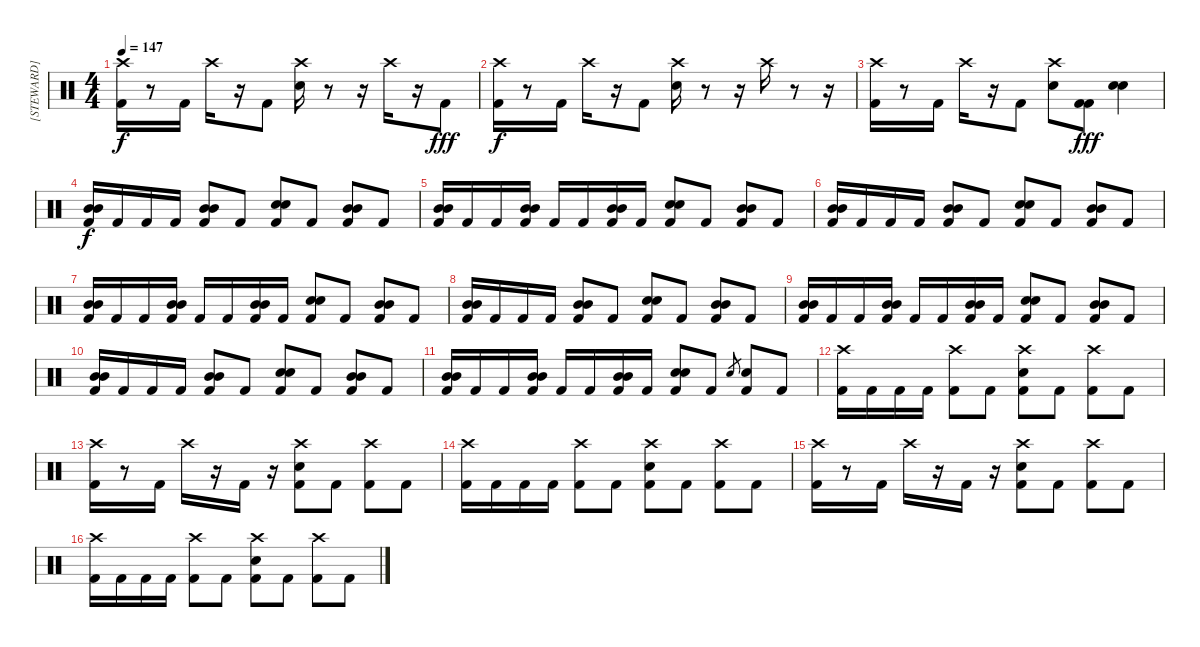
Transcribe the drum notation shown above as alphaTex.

\track ("[STEWARD]" "[STEWARD]") {instrument percussion}
\staff {score}
\articulation defaults
\ts (4 4)
\tempo 147
\clef neutral
\ks c
("Crash high (hit)" "Kick (hit) 2").16{dy f} r.8 "Kick (hit) 2".16 "Crash high (hit)".16 r.16 "Kick (hit) 2".8 ("Crash high (hit)" "Snare (hit) 2").16 r.8 r.16 "Crash high (hit)".16 r.16 "Kick (hit) 2".8{dy fff} |
("Crash high (hit)" "Kick (hit) 2").16{dy f} r.8 "Kick (hit) 2".16 "Crash high (hit)".16 r.16 "Kick (hit) 2".8 ("Crash high (hit)" "Snare (hit) 2").16 r.8 r.16 "Crash high (hit)".16 r.8 r.16 |
("Crash high (hit)" "Kick (hit) 2").16 r.8 "Kick (hit) 2".16 "Crash high (hit)".16 r.16 "Kick (hit) 2".8 ("Crash high (hit)" "Snare (hit) 2").8 ("Kick (hit) 2" "Kick (hit) 2").8{dy fff} ("Snare (hit) 2" "Snare (hit) 2").4 |
("Mid Tom (hit)" "Mid Tom (hit)" "Kick (hit) 2").16{dy f} "Kick (hit) 2".16 "Kick (hit) 2".16 "Kick (hit) 2".16 ("Mid Tom (hit)" "Mid Tom (hit)" "Kick (hit) 2").8 "Kick (hit) 2".8 ("Snare (hit) 2" "Snare (hit) 2" "Kick (hit) 2").8 "Kick (hit) 2".8 ("Mid Tom (hit)" "Mid Tom (hit)" "Kick (hit) 2").8 "Kick (hit) 2".8 |
("Mid Tom (hit)" "Mid Tom (hit)" "Kick (hit) 2").16 "Kick (hit) 2".16 "Kick (hit) 2".16 ("Mid Tom (hit)" "Mid Tom (hit)" "Kick (hit) 2").16 "Kick (hit) 2".16 "Kick (hit) 2".16 ("Mid Tom (hit)" "Mid Tom (hit)" "Kick (hit) 2").16 "Kick (hit) 2".16 ("Snare (hit) 2" "Snare (hit) 2" "Kick (hit) 2").8 "Kick (hit) 2".8 ("Mid Tom (hit)" "Mid Tom (hit)" "Kick (hit) 2").8 "Kick (hit) 2".8 |
("Mid Tom (hit)" "Mid Tom (hit)" "Kick (hit) 2").16 "Kick (hit) 2".16 "Kick (hit) 2".16 "Kick (hit) 2".16 ("Mid Tom (hit)" "Mid Tom (hit)" "Kick (hit) 2").8 "Kick (hit) 2".8 ("Snare (hit) 2" "Snare (hit) 2" "Kick (hit) 2").8 "Kick (hit) 2".8 ("Mid Tom (hit)" "Mid Tom (hit)" "Kick (hit) 2").8 "Kick (hit) 2".8 |
("Mid Tom (hit)" "Mid Tom (hit)" "Kick (hit) 2").16 "Kick (hit) 2".16 "Kick (hit) 2".16 ("Mid Tom (hit)" "Mid Tom (hit)" "Kick (hit) 2").16 "Kick (hit) 2".16 "Kick (hit) 2".16 ("Mid Tom (hit)" "Mid Tom (hit)" "Kick (hit) 2").16 "Kick (hit) 2".16 ("Snare (hit) 2" "Snare (hit) 2" "Kick (hit) 2").8 "Kick (hit) 2".8 ("Mid Tom (hit)" "Mid Tom (hit)" "Kick (hit) 2").8 "Kick (hit) 2".8 |
("Mid Tom (hit)" "Mid Tom (hit)" "Kick (hit) 2").16 "Kick (hit) 2".16 "Kick (hit) 2".16 "Kick (hit) 2".16 ("Mid Tom (hit)" "Mid Tom (hit)" "Kick (hit) 2").8 "Kick (hit) 2".8 ("Snare (hit) 2" "Snare (hit) 2" "Kick (hit) 2").8 "Kick (hit) 2".8 ("Mid Tom (hit)" "Mid Tom (hit)" "Kick (hit) 2").8 "Kick (hit) 2".8 |
("Mid Tom (hit)" "Mid Tom (hit)" "Kick (hit) 2").16 "Kick (hit) 2".16 "Kick (hit) 2".16 ("Mid Tom (hit)" "Mid Tom (hit)" "Kick (hit) 2").16 "Kick (hit) 2".16 "Kick (hit) 2".16 ("Mid Tom (hit)" "Mid Tom (hit)" "Kick (hit) 2").16 "Kick (hit) 2".16 ("Snare (hit) 2" "Snare (hit) 2" "Kick (hit) 2").8 "Kick (hit) 2".8 ("Mid Tom (hit)" "Mid Tom (hit)" "Kick (hit) 2").8 "Kick (hit) 2".8 |
("Mid Tom (hit)" "Mid Tom (hit)" "Kick (hit) 2").16 "Kick (hit) 2".16 "Kick (hit) 2".16 "Kick (hit) 2".16 ("Mid Tom (hit)" "Mid Tom (hit)" "Kick (hit) 2").8 "Kick (hit) 2".8 ("Snare (hit) 2" "Snare (hit) 2" "Kick (hit) 2").8 "Kick (hit) 2".8 ("Mid Tom (hit)" "Mid Tom (hit)" "Kick (hit) 2").8 "Kick (hit) 2".8 |
("Mid Tom (hit)" "Mid Tom (hit)" "Kick (hit) 2").16 "Kick (hit) 2".16 "Kick (hit) 2".16 ("Mid Tom (hit)" "Mid Tom (hit)" "Kick (hit) 2").16 "Kick (hit) 2".16 "Kick (hit) 2".16 ("Mid Tom (hit)" "Mid Tom (hit)" "Kick (hit) 2").16 "Kick (hit) 2".16 ("Snare (hit) 2" "Snare (hit) 2" "Kick (hit) 2").8 "Kick (hit) 2".8 "Snare (hit) 2".8{gr} ("Snare (hit) 2" "Kick (hit) 2").8 "Kick (hit) 2".8 |
("Crash high (hit)" "Kick (hit) 2").16 "Kick (hit) 2".16 "Kick (hit) 2".16 "Kick (hit) 2".16 ("Crash high (hit)" "Kick (hit) 2").8 "Kick (hit) 2".8 ("Crash high (hit)" "Snare (hit) 2" "Kick (hit) 2").8 "Kick (hit) 2".8 ("Crash high (hit)" "Kick (hit) 2").8 "Kick (hit) 2".8 |
("Crash high (hit)" "Kick (hit) 2").16 r.8 "Kick (hit) 2".16 "Crash high (hit)".16 r.16 "Kick (hit) 2".16 r.16 ("Crash high (hit)" "Snare (hit) 2" "Kick (hit) 2").8 "Kick (hit) 2".8 ("Crash high (hit)" "Kick (hit) 2").8 "Kick (hit) 2".8 |
("Crash high (hit)" "Kick (hit) 2").16 "Kick (hit) 2".16 "Kick (hit) 2".16 "Kick (hit) 2".16 ("Crash high (hit)" "Kick (hit) 2").8 "Kick (hit) 2".8 ("Crash high (hit)" "Snare (hit) 2" "Kick (hit) 2").8 "Kick (hit) 2".8 ("Crash high (hit)" "Kick (hit) 2").8 "Kick (hit) 2".8 |
("Crash high (hit)" "Kick (hit) 2").16 r.8 "Kick (hit) 2".16 "Crash high (hit)".16 r.16 "Kick (hit) 2".16 r.16 ("Crash high (hit)" "Snare (hit) 2" "Kick (hit) 2").8 "Kick (hit) 2".8 ("Crash high (hit)" "Kick (hit) 2").8 "Kick (hit) 2".8 |
("Crash high (hit)" "Kick (hit) 2").16 "Kick (hit) 2".16 "Kick (hit) 2".16 "Kick (hit) 2".16 ("Crash high (hit)" "Kick (hit) 2").8 "Kick (hit) 2".8 ("Crash high (hit)" "Snare (hit) 2" "Kick (hit) 2").8 "Kick (hit) 2".8 ("Crash high (hit)" "Kick (hit) 2").8 "Kick (hit) 2".8
